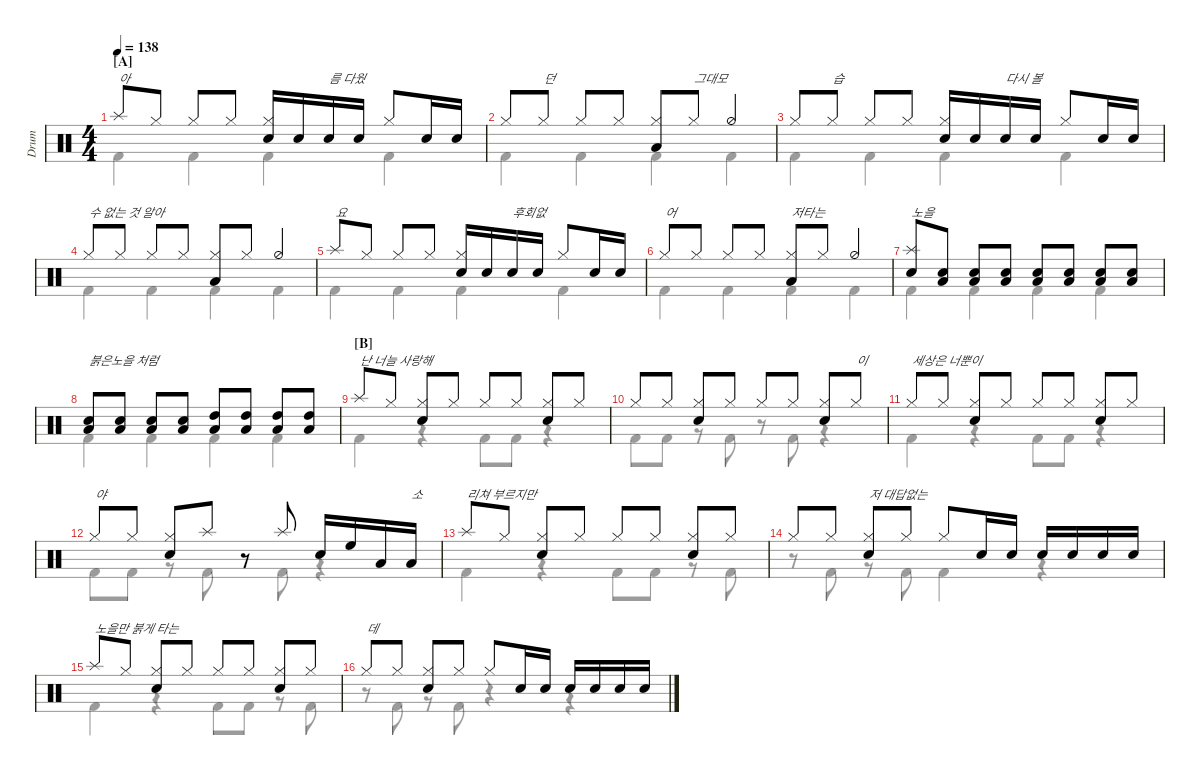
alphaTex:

\defaultSystemsLayout 4
\hideDynamics
\bracketExtendMode nobrackets
\track ("Drumkit" "Drum") {instrument percussion}
\staff {score}
\articulation defaults
\voice
\ts (4 4)
\section ("A" "")
\tempo 138
\clef neutral
\ks c "Splash (hit)".8{txt "아" dy mf beam Up} "Hi-Hat (closed)".8{beam Up} "Hi-Hat (closed)".8{beam Up} "Hi-Hat (closed)".8{beam Up}
("Hi-Hat (closed)" "Snare (hit) 2").16{beam Up} "Snare (hit) 2".16{beam Up} "Snare (hit) 2".16{txt "름 다웠" beam Up} "Snare (hit) 2".16{beam Up} "Hi-Hat (closed)".8{beam Up} "Snare (hit) 2".16{beam Up} "Snare (hit) 2".16{beam Up} |
"Hi-Hat (closed)".8{beam Up} "Hi-Hat (closed)".8{txt "던" beam Up} "Hi-Hat (closed)".8{beam Up} "Hi-Hat (closed)".8{beam Up} ("Hi-Hat (closed)" "Low Tom (hit)").8{beam Up} "Hi-Hat (closed)".8{txt "그대모" beam Up} "Hi-Hat (half)".4{beam Up} |
"Hi-Hat (closed)".8{beam Up} "Hi-Hat (closed)".8{txt "습" beam Up} "Hi-Hat (closed)".8{beam Up} "Hi-Hat (closed)".8{beam Up} ("Hi-Hat (closed)" "Snare (hit) 2").16{beam Up} "Snare (hit) 2".16{beam Up} "Snare (hit) 2".16{txt "다시 볼" beam Up} "Snare (hit) 2".16{beam Up} "Hi-Hat (closed)".8{beam Up} "Snare (hit) 2".16{beam Up} "Snare (hit) 2".16{beam Up} |
"Hi-Hat (closed)".8{txt "수 없는 것 알아" beam Up} "Hi-Hat (closed)".8{beam Up} "Hi-Hat (closed)".8{beam Up} "Hi-Hat (closed)".8{beam Up} ("Hi-Hat (closed)" "Low Tom (hit)").8{beam Up} "Hi-Hat (closed)".8{beam Up} "Hi-Hat (half)".4{beam Up} |
"Splash (hit)".8{txt "요" beam Up} "Hi-Hat (closed)".8{beam Up} "Hi-Hat (closed)".8{beam Up} "Hi-Hat (closed)".8{beam Up} ("Hi-Hat (closed)" "Snare (hit) 2").16{beam Up} "Snare (hit) 2".16{beam Up} "Snare (hit) 2".16{txt "후회없" beam Up} "Snare (hit) 2".16{beam Up} "Hi-Hat (closed)".8{beam Up} "Snare (hit) 2".16{beam Up} "Snare (hit) 2".16{beam Up} |
"Hi-Hat (closed)".8{txt "어" beam Up} "Hi-Hat (closed)".8{beam Up} "Hi-Hat (closed)".8{beam Up} "Hi-Hat (closed)".8{beam Up} ("Hi-Hat (closed)" "Low Tom (hit)").8{txt "저타는" beam Up} "Hi-Hat (closed)".8{beam Up} "Hi-Hat (half)".4{beam Up} |
("Splash (hit)" "Snare (hit) 2").8{txt "노을" beam Up} ("Snare (hit) 2" "Low Tom (hit)").8{beam Up} ("Snare (hit) 2" "Low Tom (hit)").8{beam Up} ("Snare (hit) 2" "Low Tom (hit)").8{beam Up} ("Snare (hit) 2" "Low Tom (hit)").8{beam Up} ("Snare (hit) 2" "Low Tom (hit)").8{beam Up} ("Snare (hit) 2" "Low Tom (hit)").8{beam Up} ("Snare (hit) 2" "Low Tom (hit)").8{beam Up} |
("Snare (hit) 2" "Low Tom (hit)").8{txt "붉은노을 처럼" beam Up} ("Snare (hit) 2" "Low Tom (hit)").8{beam Up} ("Snare (hit) 2" "Low Tom (hit)").8{beam Up} ("Snare (hit) 2" "Low Tom (hit)").8{beam Up} ("High Tom (hit)" "Low Tom (hit)").8{beam Up} ("High Tom (hit)" "Low Tom (hit)").8{beam Up} ("High Tom (hit)" "Low Tom (hit)").8{beam Up} ("High Tom (hit)" "Low Tom (hit)").8{beam Up} |
\section ("B" "")
"Splash (hit)".8{txt "난 너늘 사랑해" beam Up} "Hi-Hat (closed)".8{beam Up} ("Hi-Hat (closed)" "Snare (hit) 2").8{beam Up} "Hi-Hat (closed)".8{beam Up} "Hi-Hat (closed)".8{beam Up} "Hi-Hat (closed)".8{beam Up} ("Hi-Hat (closed)" "Snare (hit) 2").8{beam Up} "Hi-Hat (closed)".8{beam Up} |
"Hi-Hat (closed)".8{beam Up} "Hi-Hat (closed)".8{beam Up} ("Hi-Hat (closed)" "Snare (hit) 2").8{beam Up} "Hi-Hat (closed)".8{beam Up} "Hi-Hat (closed)".8{beam Up} "Hi-Hat (closed)".8{beam Up} ("Hi-Hat (closed)" "Snare (hit) 2").8{beam Up} "Hi-Hat (closed)".8{txt "이" beam Up} |
"Hi-Hat (closed)".8{txt "세상은 너뿐이" beam Up} "Hi-Hat (closed)".8{beam Up} ("Hi-Hat (closed)" "Snare (hit) 2").8{beam Up} "Hi-Hat (closed)".8{beam Up} "Hi-Hat (closed)".8{beam Up} "Hi-Hat (closed)".8{beam Up} ("Hi-Hat (closed)" "Snare (hit) 2").8{beam Up} "Hi-Hat (closed)".8{beam Up} |
"Hi-Hat (closed)".8{txt "야" beam Up} "Hi-Hat (closed)".8{beam Up} ("Hi-Hat (closed)" "Snare (hit) 2").8{beam Up} "Splash (hit)".8{beam Up} r.8{beam Up} "Splash (hit)".8{beam Up} "Snare (hit) 2".16{beam Up} "High Floor Tom (hit)".16{beam Up} "Low Tom (hit)".16{beam Up} "Low Tom (hit)".16{txt "소" beam Up} |
"Splash (hit)".8{txt "리쳐 부르지만" beam Up} "Hi-Hat (closed)".8{beam Up} ("Hi-Hat (closed)" "Snare (hit) 2").8{beam Up} "Hi-Hat (closed)".8{beam Up} "Hi-Hat (closed)".8{beam Up} "Hi-Hat (closed)".8{beam Up} ("Hi-Hat (closed)" "Snare (hit) 2").8{beam Up} "Hi-Hat (closed)".8{beam Up} |
"Hi-Hat (closed)".8{beam Up} "Hi-Hat (closed)".8{beam Up} ("Hi-Hat (closed)" "Snare (hit) 2").8{txt "저 대답없는" beam Up} "Hi-Hat (closed)".8{beam Up} "Hi-Hat (closed)".8{beam Up} "Snare (hit) 2".16{beam Up} "Snare (hit) 2".16{beam Up} "Snare (hit) 2".16{beam Up} "Snare (hit) 2".16{beam Up} "Snare (hit) 2".16{beam Up} "Snare (hit) 2".16{beam Up} |
"Splash (hit)".8{txt "노을만 붉게 타는" beam Up} "Hi-Hat (closed)".8{beam Up} ("Hi-Hat (closed)" "Snare (hit) 2").8{beam Up} "Hi-Hat (closed)".8{beam Up} "Hi-Hat (closed)".8{beam Up} "Hi-Hat (closed)".8{beam Up} ("Hi-Hat (closed)" "Snare (hit) 2").8{beam Up} "Hi-Hat (closed)".8{beam Up} |
"Hi-Hat (closed)".8{txt "데" beam Up} "Hi-Hat (closed)".8{beam Up} ("Hi-Hat (closed)" "Snare (hit) 2").8{beam Up} "Hi-Hat (closed)".8{beam Up} "Hi-Hat (closed)".8{beam Up} "Snare (hit) 2".16{beam Up} "Snare (hit) 2".16{beam Up} "Snare (hit) 2".16{beam Up} "Snare (hit) 2".16{beam Up} "Snare (hit) 2".16{beam Up} "Snare (hit) 2".16{beam Up}
\voice
\clef neutral
\ottava regular
\simile none
\ks c
|
|
|
|
|
|
|
|
|
|
|
|
|
|
|
\voice
\clef neutral
\ottava regular
\simile none
\ks c "Kick (hit) 2".4{dy mf beam Down} "Kick (hit) 2".4{beam Down} "Kick (hit) 2".4{beam Down} "Kick (hit) 2".4{beam Down}
|
"Kick (hit) 2".4{beam Down} "Kick (hit) 2".4{beam Down} "Kick (hit) 2".4{beam Down} "Kick (hit) 2".4{beam Down} |
"Kick (hit) 2".4{beam Down} "Kick (hit) 2".4{beam Down} "Kick (hit) 2".4{beam Down} "Kick (hit) 2".4{beam Down} |
"Kick (hit) 2".4{beam Down} "Kick (hit) 2".4{beam Down} "Kick (hit) 2".4{beam Down} "Kick (hit) 2".4{beam Down} |
"Kick (hit) 2".4{beam Down} "Kick (hit) 2".4{beam Down} "Kick (hit) 2".4{beam Down} "Kick (hit) 2".4{beam Down} |
"Kick (hit) 2".4{beam Down} "Kick (hit) 2".4{beam Down} "Kick (hit) 2".4{beam Down} "Kick (hit) 2".4{beam Down} |
"Kick (hit) 2".4{beam Down} "Kick (hit) 2".4{beam Down} "Kick (hit) 2".4{beam Down} "Kick (hit) 2".4{beam Down} |
"Kick (hit) 2".4{beam Down} "Kick (hit) 2".4{beam Down} "Kick (hit) 2".4{beam Down} "Kick (hit) 2".4{beam Down} |
"Kick (hit) 2".4{beam Down} r.4{beam Down} "Kick (hit) 2".8{beam Down} "Kick (hit) 2".8{beam Down} r.4{beam Down} |
"Kick (hit) 2".8{beam Down} "Kick (hit) 2".8{beam Down} r.8{beam Down} "Kick (hit) 2".8{beam Down} r.8{beam Down} "Kick (hit) 2".8{beam Down} r.4{beam Down} |
"Kick (hit) 2".4{beam Down} r.4{beam Down} "Kick (hit) 2".8{beam Down} "Kick (hit) 2".8{beam Down} r.4{beam Down} |
"Kick (hit) 2".8{beam Down} "Kick (hit) 2".8{beam Down} r.8{beam Down} "Kick (hit) 2".8{beam Down} r.8{beam Down} "Kick (hit) 2".8{beam Down} r.4{beam Down} |
"Kick (hit) 2".4{beam Down} r.4{beam Down} "Kick (hit) 2".8{beam Down} "Kick (hit) 2".8{beam Down} r.8{beam Down} "Kick (hit) 2".8{beam Down} |
r.8{beam Down} "Kick (hit) 2".8{beam Down} r.8{beam Down} "Kick (hit) 2".8{beam Down} "Kick (hit) 2".4{beam Down} r.4{beam Down} |
"Kick (hit) 2".4{beam Down} r.4{beam Down} "Kick (hit) 2".8{beam Down} "Kick (hit) 2".8{beam Down} r.8{beam Down} "Kick (hit) 2".8{beam Down} |
r.8{beam Down} "Kick (hit) 2".8{beam Down} r.8{beam Down} "Kick (hit) 2".8{beam Down} r.4{beam Down} r.4{beam Down}
